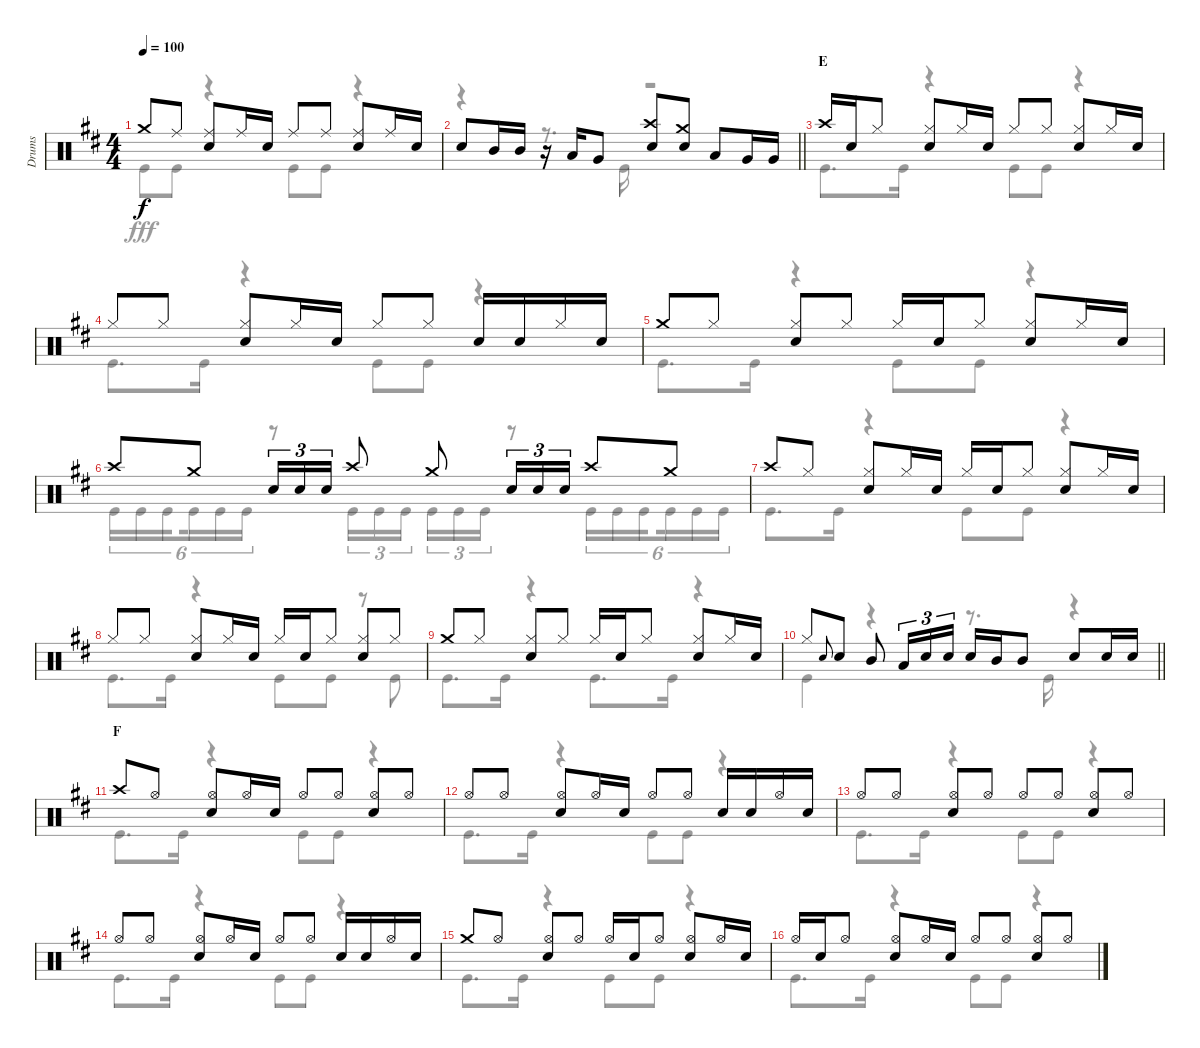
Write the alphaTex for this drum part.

\track ("Drums" "Drums") {instrument percussion}
\staff {score}
\articulation defaults
\voice
\ts (4 4)
\tempo 100
\clef neutral
\ks d "Crash medium (hit)".8{dy f} "Ride (middle)".8
("Ride (middle)" "Snare (hit) 2").8 "Ride (middle)".16 "Snare (hit) 2".16 "Ride (middle)".8 "Ride (middle)".8 ("Ride (middle)" "Snare (hit) 2").8 "Ride (middle)".16 "Snare (hit) 2".16 |
\barLineRight lightlight "Snare (hit) 2".8 "Mid Tom (hit)".16 "Mid Tom (hit)".16
r.16 "Low Tom (hit)".16 "Very Low Tom (hit)".8 ("Crash high (hit)" "Snare (hit) 2").8 ("Crash medium (hit)" "Snare (hit) 2").8 "Low Tom (hit)".8 "Very Low Tom (hit)".16 "Very Low Tom (hit)".16 |
\section ("" "E")
"Crash high (hit)".16 "Snare (hit) 2".16 "Hi-Hat (closed)".8 ("Hi-Hat (closed)" "Snare (hit) 2").8 "Hi-Hat (closed)".16 "Snare (hit) 2".16 "Hi-Hat (closed)".8 "Hi-Hat (closed)".8 ("Hi-Hat (closed)" "Snare (hit) 2").8 "Hi-Hat (closed)".16 "Snare (hit) 2".16 |
"Hi-Hat (closed)".8 "Hi-Hat (closed)".8 ("Hi-Hat (closed)" "Snare (hit) 2").8 "Hi-Hat (closed)".16 "Snare (hit) 2".16 "Hi-Hat (closed)".8 "Hi-Hat (closed)".8 "Snare (hit) 2".16 "Snare (hit) 2".16 "Hi-Hat (closed)".16 "Snare (hit) 2".16 |
"Crash medium (hit)".8 "Hi-Hat (closed)".8 ("Hi-Hat (closed)" "Snare (hit) 2").8 "Hi-Hat (closed)".8 "Hi-Hat (closed)".16 "Snare (hit) 2".16 "Hi-Hat (closed)".8 ("Hi-Hat (closed)" "Snare (hit) 2").8 "Hi-Hat (closed)".16 "Snare (hit) 2".16 |
"Crash high (hit)".8 "Crash medium (hit)".8 "Snare (hit) 2".16{tu (3 2)} "Snare (hit) 2".16{tu (3 2)} "Snare (hit) 2".16{tu (3 2)} "Crash high (hit)".8 "Crash medium (hit)".8 "Snare (hit) 2".16{tu (3 2)} "Snare (hit) 2".16{tu (3 2)} "Snare (hit) 2".16{tu (3 2)} "Crash high (hit)".8 "Crash medium (hit)".8 |
"Crash high (hit)".8 "Hi-Hat (closed)".8 ("Hi-Hat (closed)" "Snare (hit) 2").8 "Hi-Hat (closed)".16 "Snare (hit) 2".16 "Hi-Hat (closed)".16 "Snare (hit) 2".16 "Hi-Hat (closed)".8 ("Hi-Hat (closed)" "Snare (hit) 2").8 "Hi-Hat (closed)".16 "Snare (hit) 2".16 |
"Hi-Hat (closed)".8 "Hi-Hat (closed)".8 ("Hi-Hat (closed)" "Snare (hit) 2").8 "Hi-Hat (closed)".16 "Snare (hit) 2".16 "Hi-Hat (closed)".16 "Snare (hit) 2".16 "Hi-Hat (closed)".8 ("Hi-Hat (closed)" "Snare (hit) 2").8 "Hi-Hat (closed)".8 |
"Crash medium (hit)".8 "Hi-Hat (closed)".8 ("Hi-Hat (closed)" "Snare (hit) 2").8 "Hi-Hat (closed)".8 "Hi-Hat (closed)".16 "Snare (hit) 2".16 "Hi-Hat (closed)".8 ("Hi-Hat (closed)" "Snare (hit) 2").8 "Hi-Hat (closed)".16 "Snare (hit) 2".16 |
\barLineRight lightlight "Hi-Hat (closed)".8 "Snare (hit) 2".8{gr onbeat} "Snare (hit) 2".8 "Mid Tom (hit)".8 "Low Tom (hit)".16{tu (3 2)} "Snare (hit) 2".16{tu (3 2)} "Snare (hit) 2".16{tu (3 2)} "Snare (hit) 2".16 "Mid Tom (hit)".16 "Mid Tom (hit)".8 "Snare (hit) 2".8 "Snare (hit) 2".16 "Snare (hit) 2".16
|
\section ("" "F")
"Crash high (hit)".8 "Hi-Hat (open)".8 ("Hi-Hat (open)" "Snare (hit) 2").8 "Hi-Hat (open)".16 "Snare (hit) 2".16 "Hi-Hat (open)".8 "Hi-Hat (open)".8 ("Hi-Hat (open)" "Snare (hit) 2").8 "Hi-Hat (open)".8 |
"Hi-Hat (open)".8 "Hi-Hat (open)".8 ("Hi-Hat (open)" "Snare (hit) 2").8 "Hi-Hat (open)".16 "Snare (hit) 2".16 "Hi-Hat (open)".8 "Hi-Hat (open)".8 "Snare (hit) 2".16 "Snare (hit) 2".16 "Hi-Hat (open)".16 "Snare (hit) 2".16 |
"Hi-Hat (open)".8 "Hi-Hat (open)".8 ("Hi-Hat (open)" "Snare (hit) 2").8 "Hi-Hat (open)".8 "Hi-Hat (open)".8 "Hi-Hat (open)".8 ("Hi-Hat (open)" "Snare (hit) 2").8 "Hi-Hat (open)".8 |
"Hi-Hat (open)".8 "Hi-Hat (open)".8 ("Hi-Hat (open)" "Snare (hit) 2").8 "Hi-Hat (open)".16 "Snare (hit) 2".16 "Hi-Hat (open)".8 "Hi-Hat (open)".8 "Snare (hit) 2".16 "Snare (hit) 2".16 "Hi-Hat (open)".16 "Snare (hit) 2".16 |
"Crash medium (hit)".8 "Hi-Hat (open)".8 ("Hi-Hat (open)" "Snare (hit) 2").8 "Hi-Hat (open)".8 "Hi-Hat (open)".16 "Snare (hit) 2".16 "Hi-Hat (open)".8 ("Hi-Hat (open)" "Snare (hit) 2").8 "Hi-Hat (open)".16 "Snare (hit) 2".16 |
"Hi-Hat (open)".16 "Snare (hit) 2".16 "Hi-Hat (open)".8 ("Hi-Hat (open)" "Snare (hit) 2").8 "Hi-Hat (open)".16 "Snare (hit) 2".16 "Hi-Hat (open)".8 "Hi-Hat (open)".8 ("Hi-Hat (open)" "Snare (hit) 2").8 "Hi-Hat (open)".8
\voice
\clef neutral
\ottava regular
\simile none
\ks d "Kick (hit)".8{dy fff} "Kick (hit)".8
r.4 "Kick (hit)".8 "Kick (hit)".8 r.4 |
\barLineRight lightlight
r.4 r.8{d} "Kick (hit)".16 r.2 |
"Kick (hit)".8{d} "Kick (hit)".16 r.4 "Kick (hit)".8 "Kick (hit)".8 r.4 |
"Kick (hit)".8{d} "Kick (hit)".16 r.4 "Kick (hit)".8 "Kick (hit)".8 r.4 |
"Kick (hit)".8{d} "Kick (hit)".16 r.4 "Kick (hit)".8 "Kick (hit)".8 r.4 |
"Kick (hit)".16{tu (6 4)} "Kick (hit)".16{tu (6 4)} "Kick (hit)".16{tu (6 4) beam splitsecondary} "Kick (hit)".16{tu (6 4)} "Kick (hit)".16{tu (6 4)} "Kick (hit)".16{tu (6 4)} r.8 "Kick (hit)".16{tu (3 2)} "Kick (hit)".16{tu (3 2)} "Kick (hit)".16{tu (3 2)} "Kick (hit)".16{tu (3 2)} "Kick (hit)".16{tu (3 2)} "Kick (hit)".16{tu (3 2)} r.8 "Kick (hit)".16{tu (6 4)} "Kick (hit)".16{tu (6 4)} "Kick (hit)".16{tu (6 4) beam splitsecondary} "Kick (hit)".16{tu (6 4)} "Kick (hit)".16{tu (6 4)} "Kick (hit)".16{tu (6 4)} |
"Kick (hit)".8{d} "Kick (hit)".16 r.4 "Kick (hit)".8 "Kick (hit)".8 r.4 |
"Kick (hit)".8{d} "Kick (hit)".16 r.4 "Kick (hit)".8 "Kick (hit)".8 r.8 "Kick (hit)".8 |
"Kick (hit)".8{d} "Kick (hit)".16 r.4 "Kick (hit)".8{d} "Kick (hit)".16 r.4 |
\barLineRight lightlight "Kick (hit)".4
r.4 r.8{d} "Kick (hit)".16 r.4 |
"Kick (hit)".8{d} "Kick (hit)".16 r.4 "Kick (hit)".8 "Kick (hit)".8 r.4 |
"Kick (hit)".8{d} "Kick (hit)".16 r.4 "Kick (hit)".8 "Kick (hit)".8 r.4 |
"Kick (hit)".8{d} "Kick (hit)".16 r.4 "Kick (hit)".8 "Kick (hit)".8 r.4 |
"Kick (hit)".8{d} "Kick (hit)".16 r.4 "Kick (hit)".8 "Kick (hit)".8 r.4 |
"Kick (hit)".8{d} "Kick (hit)".16 r.4 "Kick (hit)".8 "Kick (hit)".8 r.4 |
"Kick (hit)".8{d} "Kick (hit)".16 r.4 "Kick (hit)".8 "Kick (hit)".8 r.4
